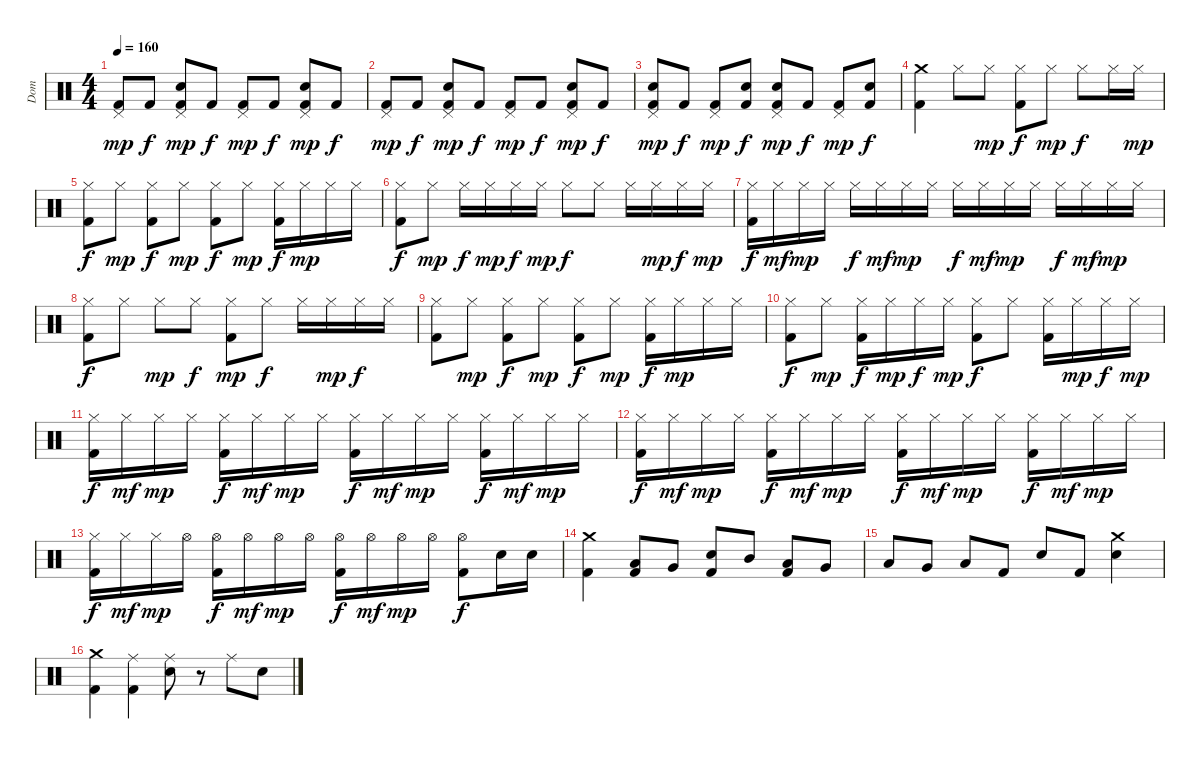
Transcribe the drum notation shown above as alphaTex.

\track ("Dom" "Dom") {instrument percussion}
\staff {score}
\articulation defaults
\ts (4 4)
\tempo 160
\clef neutral
\ks c
("Pedal Hi-Hat (hit)" "Kick (hit) 2").8{dy mp} "Kick (hit) 2".8{dy f} ("Pedal Hi-Hat (hit)" "Snare (hit) 2" "Kick (hit) 2").8{dy mp} "Kick (hit) 2".8{dy f} ("Pedal Hi-Hat (hit)" "Kick (hit) 2").8{dy mp} "Kick (hit) 2".8{dy f} ("Pedal Hi-Hat (hit)" "Snare (hit) 2" "Kick (hit) 2").8{dy mp} "Kick (hit) 2".8{dy f} |
("Pedal Hi-Hat (hit)" "Kick (hit) 2").8{dy mp} "Kick (hit) 2".8{dy f} ("Pedal Hi-Hat (hit)" "Snare (hit) 2" "Kick (hit) 2").8{dy mp} "Kick (hit) 2".8{dy f} ("Pedal Hi-Hat (hit)" "Kick (hit) 2").8{dy mp} "Kick (hit) 2".8{dy f} ("Pedal Hi-Hat (hit)" "Snare (hit) 2" "Kick (hit) 2").8{dy mp} "Kick (hit) 2".8{dy f} |
("Pedal Hi-Hat (hit)" "Snare (hit) 2" "Kick (hit) 2").8{dy mp} "Kick (hit) 2".8{dy f} ("Pedal Hi-Hat (hit)" "Kick (hit) 2").8{dy mp} ("Snare (hit) 2" "Kick (hit) 2").8{dy f} ("Pedal Hi-Hat (hit)" "Snare (hit) 2" "Kick (hit) 2").8{dy mp} "Kick (hit) 2".8{dy f} ("Pedal Hi-Hat (hit)" "Kick (hit) 2").8{dy mp} ("Snare (hit) 2" "Kick (hit) 2").8{dy f} |
("Crash medium (hit)" "Kick (hit) 2").4 "Hi-Hat (closed)".8 "Hi-Hat (closed)".8{dy mp} ("Hi-Hat (closed)" "Kick (hit) 2").8{dy f} "Hi-Hat (closed)".8{dy mp} "Hi-Hat (closed)".8{dy f} "Hi-Hat (closed)".16 "Hi-Hat (closed)".16{dy mp} |
("Hi-Hat (closed)" "Kick (hit) 2").8{dy f} "Hi-Hat (closed)".8{dy mp} ("Hi-Hat (closed)" "Kick (hit) 2").8{dy f} "Hi-Hat (closed)".8{dy mp} ("Hi-Hat (closed)" "Kick (hit) 2").8{dy f} "Hi-Hat (closed)".8{dy mp} ("Hi-Hat (closed)" "Kick (hit) 2").16{dy f} "Hi-Hat (closed)".16{dy mp} "Hi-Hat (closed)".16 "Hi-Hat (closed)".16 |
("Hi-Hat (closed)" "Kick (hit) 2").8{dy f} "Hi-Hat (closed)".8{dy mp} "Hi-Hat (closed)".16{dy f} "Hi-Hat (closed)".16{dy mp} "Hi-Hat (closed)".16{dy f} "Hi-Hat (closed)".16{dy mp} "Hi-Hat (closed)".8{dy f} "Hi-Hat (closed)".8 "Hi-Hat (closed)".16 "Hi-Hat (closed)".16{dy mp} "Hi-Hat (closed)".16{dy f} "Hi-Hat (closed)".16{dy mp} |
("Hi-Hat (closed)" "Kick (hit) 2").16{dy f} "Hi-Hat (closed)".16{dy mf} "Hi-Hat (closed)".16{dy mp} "Hi-Hat (closed)".16 "Hi-Hat (closed)".16{dy f} "Hi-Hat (closed)".16{dy mf} "Hi-Hat (closed)".16{dy mp} "Hi-Hat (closed)".16 "Hi-Hat (closed)".16{dy f} "Hi-Hat (closed)".16{dy mf} "Hi-Hat (closed)".16{dy mp} "Hi-Hat (closed)".16 "Hi-Hat (closed)".16{dy f} "Hi-Hat (closed)".16{dy mf} "Hi-Hat (closed)".16{dy mp} "Hi-Hat (closed)".16 |
("Hi-Hat (closed)" "Kick (hit) 2").8{dy f} "Hi-Hat (closed)".8 "Hi-Hat (closed)".8{dy mp} "Hi-Hat (closed)".8{dy f} ("Hi-Hat (closed)" "Kick (hit) 2").8{dy mp} "Hi-Hat (closed)".8{dy f} "Hi-Hat (closed)".16 "Hi-Hat (closed)".16{dy mp} "Hi-Hat (closed)".16{dy f} "Hi-Hat (closed)".16 |
("Hi-Hat (closed)" "Kick (hit) 2").8 "Hi-Hat (closed)".8{dy mp} ("Hi-Hat (closed)" "Kick (hit) 2").8{dy f} "Hi-Hat (closed)".8{dy mp} ("Hi-Hat (closed)" "Kick (hit) 2").8{dy f} "Hi-Hat (closed)".8{dy mp} ("Hi-Hat (closed)" "Kick (hit) 2").16{dy f} "Hi-Hat (closed)".16{dy mp} "Hi-Hat (closed)".16 "Hi-Hat (closed)".16 |
("Hi-Hat (closed)" "Kick (hit) 2").8{dy f} "Hi-Hat (closed)".8{dy mp} ("Hi-Hat (closed)" "Kick (hit) 2").16{dy f} "Hi-Hat (closed)".16{dy mp} "Hi-Hat (closed)".16{dy f} "Hi-Hat (closed)".16{dy mp} ("Hi-Hat (closed)" "Kick (hit) 2").8{dy f} "Hi-Hat (closed)".8 ("Hi-Hat (closed)" "Kick (hit) 2").16 "Hi-Hat (closed)".16{dy mp} "Hi-Hat (closed)".16{dy f} "Hi-Hat (closed)".16{dy mp} |
("Hi-Hat (closed)" "Kick (hit) 2").16{dy f} "Hi-Hat (closed)".16{dy mf} "Hi-Hat (closed)".16{dy mp} "Hi-Hat (closed)".16 ("Hi-Hat (closed)" "Kick (hit) 2").16{dy f} "Hi-Hat (closed)".16{dy mf} "Hi-Hat (closed)".16{dy mp} "Hi-Hat (closed)".16 ("Hi-Hat (closed)" "Kick (hit) 2").16{dy f} "Hi-Hat (closed)".16{dy mf} "Hi-Hat (closed)".16{dy mp} "Hi-Hat (closed)".16 ("Hi-Hat (closed)" "Kick (hit) 2").16{dy f} "Hi-Hat (closed)".16{dy mf} "Hi-Hat (closed)".16{dy mp} "Hi-Hat (closed)".16 |
("Hi-Hat (closed)" "Kick (hit) 2").16{dy f} "Hi-Hat (closed)".16{dy mf} "Hi-Hat (closed)".16{dy mp} "Hi-Hat (closed)".16 ("Hi-Hat (closed)" "Kick (hit) 2").16{dy f} "Hi-Hat (closed)".16{dy mf} "Hi-Hat (closed)".16{dy mp} "Hi-Hat (closed)".16 ("Hi-Hat (closed)" "Kick (hit) 2").16{dy f} "Hi-Hat (closed)".16{dy mf} "Hi-Hat (closed)".16{dy mp} "Hi-Hat (closed)".16 ("Hi-Hat (closed)" "Kick (hit) 2").16{dy f} "Hi-Hat (closed)".16{dy mf} "Hi-Hat (closed)".16{dy mp} "Hi-Hat (closed)".16 |
("Hi-Hat (closed)" "Kick (hit) 2").16{dy f} "Hi-Hat (closed)".16{dy mf} "Hi-Hat (closed)".16{dy mp} "Hi-Hat (open)".16 ("Hi-Hat (open)" "Kick (hit) 2").16{dy f} "Hi-Hat (open)".16{dy mf} "Hi-Hat (open)".16{dy mp} "Hi-Hat (open)".16 ("Hi-Hat (open)" "Kick (hit) 2").16{dy f} "Hi-Hat (open)".16{dy mf} "Hi-Hat (open)".16{dy mp} "Hi-Hat (open)".16 ("Hi-Hat (open)" "Kick (hit) 2").8{dy f} "Snare (hit) 2".16 "Snare (hit) 2".16 |
("Crash medium (hit)" "Kick (hit) 2").4 ("Low Tom (hit)" "Kick (hit) 2").8 "Very Low Tom (hit)".8 ("Snare (hit) 2" "Kick (hit) 2").8 "Mid Tom (hit)".8 ("Low Tom (hit)" "Kick (hit) 2").8 "Very Low Tom (hit)".8 |
"Low Tom (hit)".8 "Very Low Tom (hit)".8 "Low Floor Tom (hit)".8 "Kick (hit) 2".8 "Snare (hit) 2".8 "Kick (hit) 2".8 ("Crash medium (hit)" "Snare (hit) 2").4 |
("Crash medium (hit)" "Kick (hit) 2").4 ("Ride (middle)" "Kick (hit) 2").4 ("Ride (middle)" "Snare (hit) 2").8 r.8 "Ride (middle)".8 "Snare (hit) 2".8
